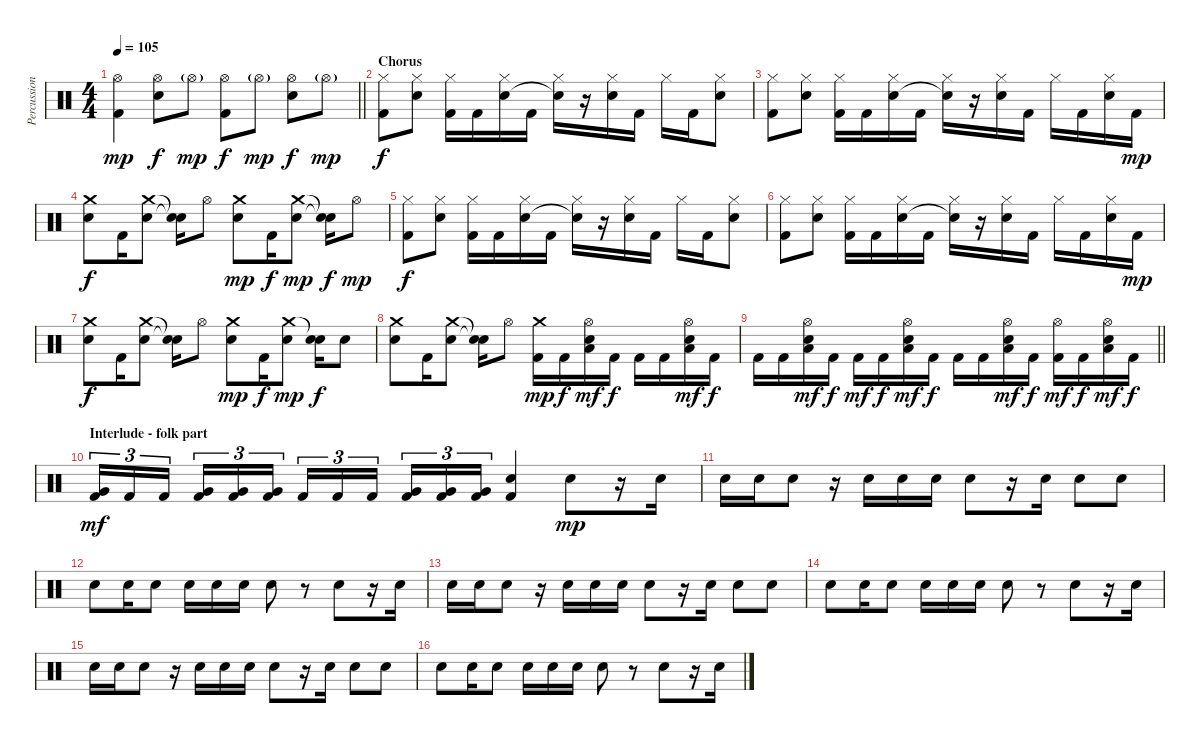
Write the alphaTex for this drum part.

\track ("Percussion" "Percussion") {instrument percussion}
\staff {score}
\articulation defaults
\ts (4 4)
\tempo 105
\clef neutral
\barLineRight lightlight
\ks c
("Hi-Hat (open)" "Kick (hit) 2").4{dy mp} ("Hi-Hat (open)" "Snare (hit) 2").8{dy f} "Hi-Hat (open)"{g}.8{dy mp} ("Hi-Hat (open)" "Kick (hit) 2").8{dy f} "Hi-Hat (open)"{g}.8{dy mp} ("Hi-Hat (open)" "Snare (hit) 2").8{dy f} "Hi-Hat (open)"{g}.8{dy mp} |
\section ("" "Chorus")
("Hi-Hat (closed)" "Kick (hit) 2").8{dy f} ("Hi-Hat (closed)" "Snare (hit) 2").8 ("Hi-Hat (closed)" "Kick (hit) 2").16 "Kick (hit) 2".16 ("Hi-Hat (closed)" "Snare (hit) 2").16 "Kick (hit) 2".16 ("Hi-Hat (closed)" "Snare (hit)"{t}).16 r.16 ("Hi-Hat (closed)" "Snare (hit) 2").16 "Kick (hit) 2".16 "Hi-Hat (closed)".16 "Kick (hit) 2".16 ("Hi-Hat (closed)" "Snare (hit) 2").8 |
("Hi-Hat (closed)" "Kick (hit) 2").8 ("Hi-Hat (closed)" "Snare (hit) 2").8 ("Hi-Hat (closed)" "Kick (hit) 2").16 "Kick (hit) 2".16 ("Hi-Hat (closed)" "Snare (hit) 2").16 "Kick (hit) 2".16 ("Hi-Hat (closed)" "Snare (hit)"{t}).16 r.16 ("Hi-Hat (closed)" "Snare (hit) 2").16 "Kick (hit) 2".16 "Hi-Hat (closed)".16 "Kick (hit) 2".16 ("Hi-Hat (closed)" "Snare (hit) 2").16 "Kick (hit) 2".16{dy mp} |
("Crash medium (hit)" "Snare (hit) 2").8{dy f} "Kick (hit) 2".16 ("Crash medium (hit)" "Snare (hit) 2").8 ("Snare (hit)"{t} "Snare (hit)"{t}).16 "Hi-Hat (open)".8 ("Crash medium (hit)" "Snare (hit) 2").8{dy mp} "Kick (hit) 2".16{dy f} ("Crash medium (hit)" "Snare (hit) 2").8{dy mp} ("Snare (hit)"{t} "Snare (hit)"{t}).16{dy f} "Hi-Hat (open)".8{dy mp} |
("Hi-Hat (closed)" "Kick (hit) 2").8{dy f} ("Hi-Hat (closed)" "Snare (hit) 2").8 ("Hi-Hat (closed)" "Kick (hit) 2").16 "Kick (hit) 2".16 ("Hi-Hat (closed)" "Snare (hit) 2").16 "Kick (hit) 2".16 ("Hi-Hat (closed)" "Snare (hit)"{t}).16 r.16 ("Hi-Hat (closed)" "Snare (hit) 2").16 "Kick (hit) 2".16 "Hi-Hat (closed)".16 "Kick (hit) 2".16 ("Hi-Hat (closed)" "Snare (hit) 2").8 |
("Hi-Hat (closed)" "Kick (hit) 2").8 ("Hi-Hat (closed)" "Snare (hit) 2").8 ("Hi-Hat (closed)" "Kick (hit) 2").16 "Kick (hit) 2".16 ("Hi-Hat (closed)" "Snare (hit) 2").16 "Kick (hit) 2".16 ("Hi-Hat (closed)" "Snare (hit)"{t}).16 r.16 ("Hi-Hat (closed)" "Snare (hit) 2").16 "Kick (hit) 2".16 "Hi-Hat (closed)".16 "Kick (hit) 2".16 ("Hi-Hat (closed)" "Snare (hit) 2").16 "Kick (hit) 2".16{dy mp} |
("Crash medium (hit)" "Snare (hit) 2").8{dy f} "Kick (hit) 2".16 ("Crash medium (hit)" "Snare (hit) 2").8 ("Snare (hit)"{t} "Snare (hit)"{t}).16 "Hi-Hat (open)".8 ("Crash medium (hit)" "Snare (hit) 2").8{dy mp} "Kick (hit) 2".16{dy f} ("Crash medium (hit)" "Snare (hit) 2").8{dy mp} ("Snare (hit)"{t} "Snare (hit) 2").16{dy f} "Snare (hit) 2".8 |
("Crash medium (hit)" "Snare (hit) 2").8 "Kick (hit) 2".16 ("Crash medium (hit)" "Snare (hit) 2").8 ("Snare (hit)"{t} "Snare (hit)"{t}).16 "Hi-Hat (open)".8 ("Crash medium (hit)" "Kick (hit) 2").16{dy mp} "Kick (hit) 2".16{dy f} ("Hi-Hat (open)" "Low Tom (hit)" "Snare (hit) 2").16{dy mf} "Kick (hit) 2".16{dy f} "Kick (hit) 2".16 "Kick (hit) 2".16 ("Hi-Hat (open)" "Low Tom (hit)" "Snare (hit) 2").16{dy mf} "Kick (hit) 2".16{dy f} |
\barLineRight lightlight "Kick (hit) 2".16 "Kick (hit) 2".16
("Hi-Hat (open)" "Low Tom (hit)" "Snare (hit) 2").16{dy mf} "Kick (hit) 2".16{dy f} "Kick (hit) 2".16{dy mf} "Kick (hit) 2".16{dy f} ("Hi-Hat (open)" "Low Tom (hit)" "Snare (hit) 2").16{dy mf} "Kick (hit) 2".16{dy f} "Kick (hit) 2".16 "Kick (hit) 2".16 ("Hi-Hat (open)" "Low Tom (hit)" "Snare (hit) 2").16{dy mf} "Kick (hit) 2".16{dy f} ("Hi-Hat (open)" "Kick (hit) 2").16{dy mf} "Kick (hit) 2".16{dy f} ("Hi-Hat (open)" "Low Tom (hit)" "Snare (hit) 2").16{dy mf} "Kick (hit) 2".16{dy f} |
\section ("" "Interlude - folk part")
("Very Low Tom (hit)" "Kick (hit) 2").16{tu (3 2) dy mf} "Kick (hit) 2".16{tu (3 2)} "Kick (hit) 2".16{tu (3 2) beam splitsecondary} ("Very Low Tom (hit)" "Kick (hit) 2").16{tu (3 2)} ("Very Low Tom (hit)" "Kick (hit) 2").16{tu (3 2)} ("Very Low Tom (hit)" "Kick (hit) 2").16{tu (3 2)} "Kick (hit) 2".16{tu (3 2)} "Kick (hit) 2".16{tu (3 2)} "Kick (hit) 2".16{tu (3 2) beam splitsecondary} ("Very Low Tom (hit)" "Kick (hit) 2").16{tu (3 2)} ("Very Low Tom (hit)" "Kick (hit) 2").16{tu (3 2)} ("Very Low Tom (hit)" "Kick (hit) 2").16{tu (3 2)} ("Snare (hit) 2" "Kick (hit) 2").4 "Snare (hit) 2".8{dy mp} r.16 "Snare (hit) 2".16 |
"Snare (hit) 2".16 "Snare (hit) 2".16 "Snare (hit) 2".8 r.16 "Snare (hit) 2".16 "Snare (hit) 2".16 "Snare (hit) 2".16 "Snare (hit) 2".8 r.16 "Snare (hit) 2".16 "Snare (hit) 2".8 "Snare (hit) 2".8 |
"Snare (hit) 2".8 "Snare (hit) 2".16 "Snare (hit) 2".8 "Snare (hit) 2".16 "Snare (hit) 2".16 "Snare (hit) 2".16 "Snare (hit) 2".8 r.8 "Snare (hit) 2".8 r.16 "Snare (hit) 2".16 |
"Snare (hit) 2".16 "Snare (hit) 2".16 "Snare (hit) 2".8 r.16 "Snare (hit) 2".16 "Snare (hit) 2".16 "Snare (hit) 2".16 "Snare (hit) 2".8 r.16 "Snare (hit) 2".16 "Snare (hit) 2".8 "Snare (hit) 2".8 |
"Snare (hit) 2".8 "Snare (hit) 2".16 "Snare (hit) 2".8 "Snare (hit) 2".16 "Snare (hit) 2".16 "Snare (hit) 2".16 "Snare (hit) 2".8 r.8 "Snare (hit) 2".8 r.16 "Snare (hit) 2".16 |
"Snare (hit) 2".16 "Snare (hit) 2".16 "Snare (hit) 2".8 r.16 "Snare (hit) 2".16 "Snare (hit) 2".16 "Snare (hit) 2".16 "Snare (hit) 2".8 r.16 "Snare (hit) 2".16 "Snare (hit) 2".8 "Snare (hit) 2".8 |
"Snare (hit) 2".8 "Snare (hit) 2".16 "Snare (hit) 2".8 "Snare (hit) 2".16 "Snare (hit) 2".16 "Snare (hit) 2".16 "Snare (hit) 2".8 r.8 "Snare (hit) 2".8 r.16 "Snare (hit) 2".16
